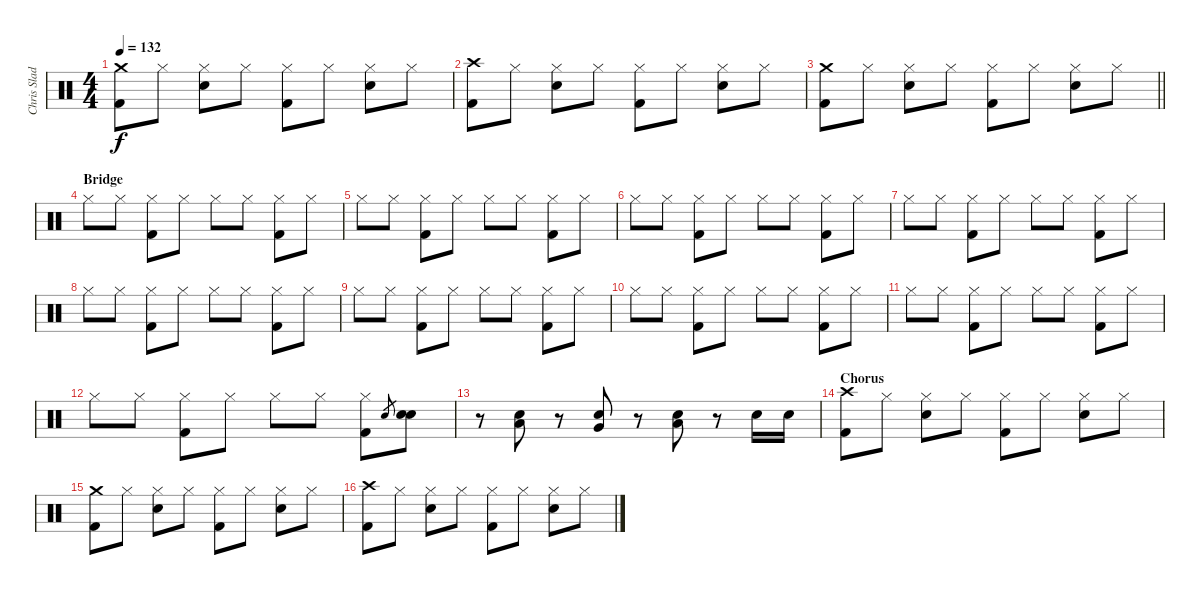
\track ("Chris Slade" "Chris Slad") {instrument percussion}
\staff {score}
\articulation defaults
\ts (4 4)
\tempo 132
\clef neutral
\ks c
("Kick (hit) 2" "Crash medium (hit)").8{dy f} "Hi-Hat (closed)".8 ("Snare (hit) 2" "Hi-Hat (closed)").8 "Hi-Hat (closed)".8 ("Kick (hit) 2" "Hi-Hat (closed)").8 "Hi-Hat (closed)".8 ("Snare (hit) 2" "Hi-Hat (closed)").8 "Hi-Hat (closed)".8 |
("Kick (hit) 2" "Crash high (hit)").8 "Hi-Hat (closed)".8 ("Snare (hit) 2" "Hi-Hat (closed)").8 "Hi-Hat (closed)".8 ("Kick (hit) 2" "Hi-Hat (closed)").8 "Hi-Hat (closed)".8 ("Snare (hit) 2" "Hi-Hat (closed)").8 "Hi-Hat (closed)".8 |
\barLineRight lightlight
("Kick (hit) 2" "Crash medium (hit)").8 "Hi-Hat (closed)".8 ("Snare (hit) 2" "Hi-Hat (closed)").8 "Hi-Hat (closed)".8 ("Kick (hit) 2" "Hi-Hat (closed)").8 "Hi-Hat (closed)".8 ("Snare (hit) 2" "Hi-Hat (closed)").8 "Hi-Hat (closed)".8 |
\section ("" "Bridge")
"Hi-Hat (closed)".8 "Hi-Hat (closed)".8 ("Kick (hit) 2" "Hi-Hat (closed)").8 "Hi-Hat (closed)".8 "Hi-Hat (closed)".8 "Hi-Hat (closed)".8 ("Kick (hit) 2" "Hi-Hat (closed)").8 "Hi-Hat (closed)".8 |
"Hi-Hat (closed)".8 "Hi-Hat (closed)".8 ("Kick (hit) 2" "Hi-Hat (closed)").8 "Hi-Hat (closed)".8 "Hi-Hat (closed)".8 "Hi-Hat (closed)".8 ("Kick (hit) 2" "Hi-Hat (closed)").8 "Hi-Hat (closed)".8 |
"Hi-Hat (closed)".8 "Hi-Hat (closed)".8 ("Kick (hit) 2" "Hi-Hat (closed)").8 "Hi-Hat (closed)".8 "Hi-Hat (closed)".8 "Hi-Hat (closed)".8 ("Kick (hit) 2" "Hi-Hat (closed)").8 "Hi-Hat (closed)".8 |
"Hi-Hat (closed)".8 "Hi-Hat (closed)".8 ("Kick (hit) 2" "Hi-Hat (closed)").8 "Hi-Hat (closed)".8 "Hi-Hat (closed)".8 "Hi-Hat (closed)".8 ("Kick (hit) 2" "Hi-Hat (closed)").8 "Hi-Hat (closed)".8 |
"Hi-Hat (closed)".8 "Hi-Hat (closed)".8 ("Kick (hit) 2" "Hi-Hat (closed)").8 "Hi-Hat (closed)".8 "Hi-Hat (closed)".8 "Hi-Hat (closed)".8 ("Kick (hit) 2" "Hi-Hat (closed)").8 "Hi-Hat (closed)".8 |
"Hi-Hat (closed)".8 "Hi-Hat (closed)".8 ("Kick (hit) 2" "Hi-Hat (closed)").8 "Hi-Hat (closed)".8 "Hi-Hat (closed)".8 "Hi-Hat (closed)".8 ("Kick (hit) 2" "Hi-Hat (closed)").8 "Hi-Hat (closed)".8 |
"Hi-Hat (closed)".8 "Hi-Hat (closed)".8 ("Kick (hit) 2" "Hi-Hat (closed)").8 "Hi-Hat (closed)".8 "Hi-Hat (closed)".8 "Hi-Hat (closed)".8 ("Kick (hit) 2" "Hi-Hat (closed)").8 "Hi-Hat (closed)".8 |
"Hi-Hat (closed)".8 "Hi-Hat (closed)".8 ("Kick (hit) 2" "Hi-Hat (closed)").8 "Hi-Hat (closed)".8 "Hi-Hat (closed)".8 "Hi-Hat (closed)".8 ("Kick (hit) 2" "Hi-Hat (closed)").8 "Hi-Hat (closed)".8 |
"Hi-Hat (closed)".8 "Hi-Hat (closed)".8 ("Kick (hit) 2" "Hi-Hat (closed)").8 "Hi-Hat (closed)".8 "Hi-Hat (closed)".8 "Hi-Hat (closed)".8 ("Kick (hit) 2" "Hi-Hat (closed)").8 "Snare (hit) 2".8{gr} ("Snare (hit) 2" "Snare (hit) 2").8 |
r.8 ("Snare (hit) 2" "Low Tom (hit)").8 r.8 ("Snare (hit) 2" "Very Low Tom (hit)").8 r.8 ("Snare (hit) 2" "Low Floor Tom (hit)").8 r.8 "Snare (hit) 2".16 "Snare (hit) 2".16 |
\section ("" "Chorus")
("Kick (hit) 2" "Crash high (hit)").8 "Hi-Hat (closed)".8 ("Snare (hit) 2" "Hi-Hat (closed)").8 "Hi-Hat (closed)".8 ("Kick (hit) 2" "Hi-Hat (closed)").8 "Hi-Hat (closed)".8 ("Snare (hit) 2" "Hi-Hat (closed)").8 "Hi-Hat (closed)".8 |
("Kick (hit) 2" "Crash medium (hit)").8 "Hi-Hat (closed)".8 ("Snare (hit) 2" "Hi-Hat (closed)").8 "Hi-Hat (closed)".8 ("Kick (hit) 2" "Hi-Hat (closed)").8 "Hi-Hat (closed)".8 ("Snare (hit) 2" "Hi-Hat (closed)").8 "Hi-Hat (closed)".8 |
("Kick (hit) 2" "Crash high (hit)").8 "Hi-Hat (closed)".8 ("Snare (hit) 2" "Hi-Hat (closed)").8 "Hi-Hat (closed)".8 ("Kick (hit) 2" "Hi-Hat (closed)").8 "Hi-Hat (closed)".8 ("Snare (hit) 2" "Hi-Hat (closed)").8 "Hi-Hat (closed)".8
